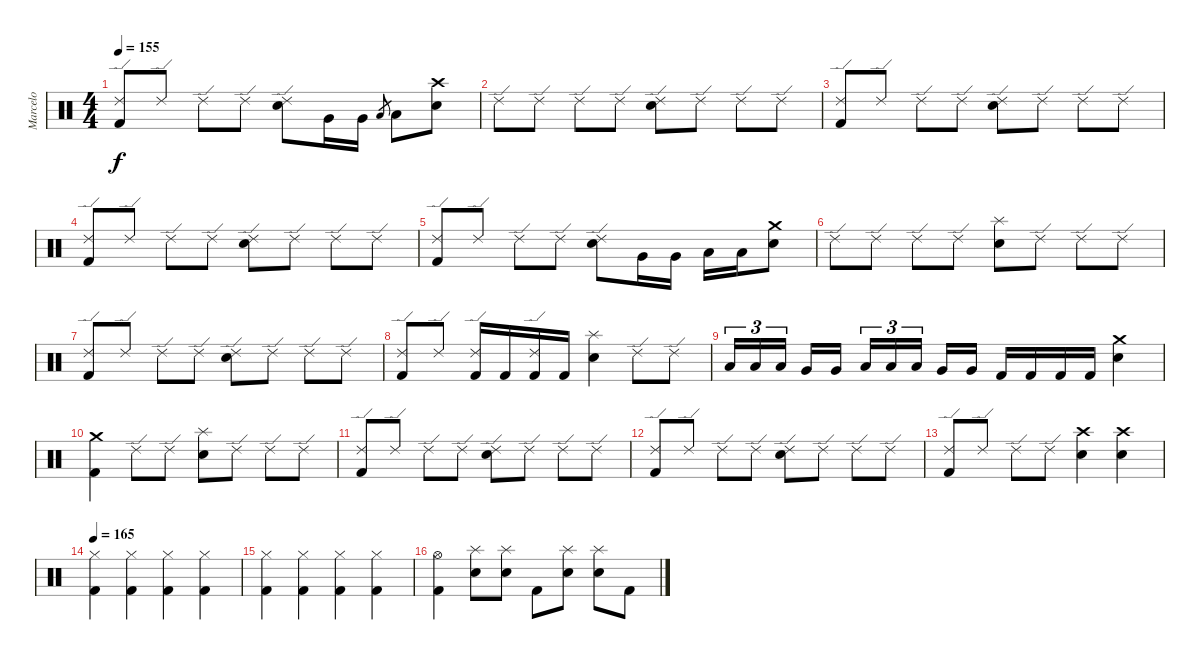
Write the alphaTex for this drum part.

\track ("Marcelo" "Marcelo") {instrument percussion}
\staff {score}
\articulation defaults
\ts (4 4)
\tempo 155
\clef neutral
\ks c
("Ride (edge) 2" "Kick (hit) 2").8{dy f} "Ride (edge) 2".8 "Ride (edge) 2".8 "Ride (edge) 2".8 ("Ride (edge) 2" "Electric Snare (hit)").8 "Very Low Tom (hit)".16 "Very Low Tom (hit)".16 "Low Floor Tom (hit)".8{gr} "Low Floor Tom (hit)".8 ("Crash high (hit)" "Electric Snare (hit)").8 |
"Ride (edge) 2".8 "Ride (edge) 2".8 "Ride (edge) 2".8 "Ride (edge) 2".8 ("Ride (edge) 2" "Electric Snare (hit)").8 "Ride (edge) 2".8 "Ride (edge) 2".8 "Ride (edge) 2".8 |
("Ride (edge) 2" "Kick (hit) 2").8 "Ride (edge) 2".8 "Ride (edge) 2".8 "Ride (edge) 2".8 ("Ride (edge) 2" "Electric Snare (hit)").8 "Ride (edge) 2".8 "Ride (edge) 2".8 "Ride (edge) 2".8 |
("Ride (edge) 2" "Kick (hit) 2").8 "Ride (edge) 2".8 "Ride (edge) 2".8 "Ride (edge) 2".8 ("Ride (edge) 2" "Electric Snare (hit)").8 "Ride (edge) 2".8 "Ride (edge) 2".8 "Ride (edge) 2".8 |
("Ride (edge) 2" "Kick (hit) 2").8 "Ride (edge) 2".8 "Ride (edge) 2".8 "Ride (edge) 2".8 ("Ride (edge) 2" "Electric Snare (hit)").8 "Very Low Tom (hit)".16 "Very Low Tom (hit)".16 "Low Floor Tom (hit)".16 "Low Floor Tom (hit)".16 ("Crash medium (hit)" "Electric Snare (hit)").8 |
"Ride (edge) 2".8 "Ride (edge) 2".8 "Ride (edge) 2".8 "Ride (edge) 2".8 ("Splash (hit)" "Electric Snare (hit)").8 "Ride (edge) 2".8 "Ride (edge) 2".8 "Ride (edge) 2".8 |
("Ride (edge) 2" "Kick (hit) 2").8 "Ride (edge) 2".8 "Ride (edge) 2".8 "Ride (edge) 2".8 ("Ride (edge) 2" "Electric Snare (hit)").8 "Ride (edge) 2".8 "Ride (edge) 2".8 "Ride (edge) 2".8 |
("Ride (edge) 2" "Kick (hit) 2").8 "Ride (edge) 2".8 ("Ride (edge) 2" "Kick (hit) 2").16 "Kick (hit) 2".16 ("Ride (edge) 2" "Kick (hit) 2").16 "Kick (hit) 2".16 ("Splash (hit)" "Electric Snare (hit)").4 "Ride (edge) 2".8 "Ride (edge) 2".8 |
"Low Tom (hit)".16{tu (3 2)} "Low Tom (hit)".16{tu (3 2)} "Low Tom (hit)".16{tu (3 2)} "Very Low Tom (hit)".16 "Very Low Tom (hit)".16 "Low Tom (hit)".16{tu (3 2)} "Low Tom (hit)".16{tu (3 2)} "Low Tom (hit)".16{tu (3 2)} "Very Low Tom (hit)".16 "Very Low Tom (hit)".16 "Kick (hit) 2".16 "Kick (hit) 2".16 "Kick (hit) 2".16 "Kick (hit) 2".16 ("Crash medium (hit)" "Electric Snare (hit)").4 |
("Crash medium (hit)" "Kick (hit) 2").4 "Ride (edge) 2".8 "Ride (edge) 2".8 ("Splash (hit)" "Electric Snare (hit)").8 "Ride (edge) 2".8 "Ride (edge) 2".8 "Ride (edge) 2".8 |
("Ride (edge) 2" "Kick (hit) 2").8 "Ride (edge) 2".8 "Ride (edge) 2".8 "Ride (edge) 2".8 ("Ride (edge) 2" "Electric Snare (hit)").8 "Ride (edge) 2".8 "Ride (edge) 2".8 "Ride (edge) 2".8 |
("Ride (edge) 2" "Kick (hit) 2").8 "Ride (edge) 2".8 "Ride (edge) 2".8 "Ride (edge) 2".8 ("Ride (edge) 2" "Electric Snare (hit)").8 "Ride (edge) 2".8 "Ride (edge) 2".8 "Ride (edge) 2".8 |
("Ride (edge) 2" "Kick (hit) 2").8 "Ride (edge) 2".8 "Ride (edge) 2".8 "Ride (edge) 2".8 ("Crash high (hit)" "Electric Snare (hit)").4 ("Crash high (hit)" "Electric Snare (hit)").4 |
\tempo 165
("Hi-Hat (closed)" "Kick (hit) 2").4 ("Hi-Hat (closed)" "Kick (hit) 2").4 ("Hi-Hat (closed)" "Kick (hit) 2").4 ("Hi-Hat (closed)" "Kick (hit) 2").4 |
("Hi-Hat (closed)" "Kick (hit) 2").4 ("Hi-Hat (closed)" "Kick (hit) 2").4 ("Hi-Hat (closed)" "Kick (hit) 2").4 ("Hi-Hat (closed)" "Kick (hit) 2").4 |
("Hi-Hat (open)" "Kick (hit) 2").4 ("Splash (hit)" "Electric Snare (hit)").8 ("Splash (hit)" "Electric Snare (hit)").8 "Kick (hit) 2".8 ("Splash (hit)" "Electric Snare (hit)").8 ("Splash (hit)" "Electric Snare (hit)").8 "Kick (hit) 2".8
